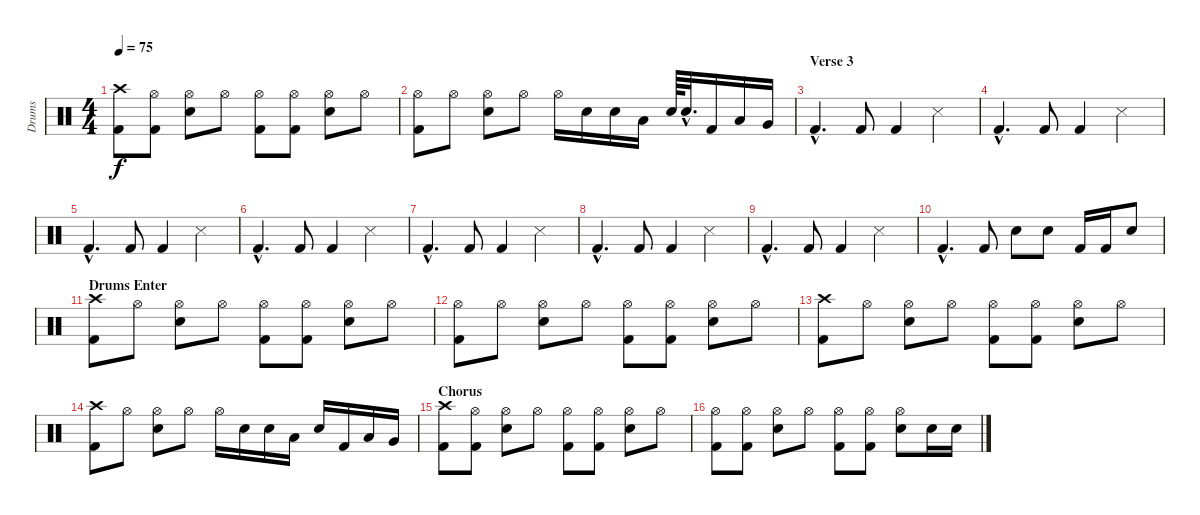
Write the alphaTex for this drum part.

\track ("Drums" "Drums") {instrument percussion}
\staff {score}
\articulation defaults
\ts (4 4)
\tempo 75
\clef neutral
\ks c
("Crash high (hit)" "Kick (hit) 2").8{dy f} ("Hi-Hat (open)" "Kick (hit) 2").8 ("Hi-Hat (open)" "Snare (hit) 2").8 "Hi-Hat (open)".8 ("Hi-Hat (open)" "Kick (hit) 2").8 ("Hi-Hat (open)" "Kick (hit) 2").8 ("Hi-Hat (open)" "Snare (hit) 2").8 "Hi-Hat (open)".8 |
("Hi-Hat (open)" "Kick (hit) 2").8 "Hi-Hat (open)".8 ("Hi-Hat (open)" "Snare (hit) 2").8 "Hi-Hat (open)".8 "Hi-Hat (open)".16 "Snare (hit) 2".16 "Snare (hit) 2".16 "Low Tom (hit)".16 "Snare (hit) 2".64 "Snare (hit) 2"{hac}.32{d} "Kick (hit) 2".16 "Low Tom (hit)".16 "Very Low Tom (hit)".16 |
\section ("" "Verse 3")
"Kick (hit) 2"{hac}.4{d} "Kick (hit) 2".8 "Kick (hit) 2".4 "Snare (side stick) 3".4 |
"Kick (hit) 2"{hac}.4{d} "Kick (hit) 2".8 "Kick (hit) 2".4 "Snare (side stick) 3".4 |
"Kick (hit) 2"{hac}.4{d} "Kick (hit) 2".8 "Kick (hit) 2".4 "Snare (side stick) 3".4 |
"Kick (hit) 2"{hac}.4{d} "Kick (hit) 2".8 "Kick (hit) 2".4 "Snare (side stick) 3".4 |
"Kick (hit) 2"{hac}.4{d} "Kick (hit) 2".8 "Kick (hit) 2".4 "Snare (side stick) 3".4 |
"Kick (hit) 2"{hac}.4{d} "Kick (hit) 2".8 "Kick (hit) 2".4 "Snare (side stick) 3".4 |
"Kick (hit) 2"{hac}.4{d} "Kick (hit) 2".8 "Kick (hit) 2".4 "Snare (side stick) 3".4 |
"Kick (hit) 2"{hac}.4{d} "Kick (hit) 2".8 "Snare (hit) 2".8 "Snare (hit) 2".8 "Kick (hit) 2".16 "Kick (hit) 2".16 "Snare (hit) 2".8 |
\section ("" "Drums Enter")
("Crash high (hit)" "Kick (hit) 2").8 "Hi-Hat (open)".8 ("Hi-Hat (open)" "Snare (hit) 2").8 "Hi-Hat (open)".8 ("Hi-Hat (open)" "Kick (hit) 2").8 ("Hi-Hat (open)" "Kick (hit) 2").8 ("Hi-Hat (open)" "Snare (hit) 2").8 "Hi-Hat (open)".8 |
("Hi-Hat (open)" "Kick (hit) 2").8 "Hi-Hat (open)".8 ("Hi-Hat (open)" "Snare (hit) 2").8 "Hi-Hat (open)".8 ("Hi-Hat (open)" "Kick (hit) 2").8 ("Hi-Hat (open)" "Kick (hit) 2").8 ("Hi-Hat (open)" "Snare (hit) 2").8 "Hi-Hat (open)".8 |
("Crash high (hit)" "Kick (hit) 2").8 "Hi-Hat (open)".8 ("Hi-Hat (open)" "Snare (hit) 2").8 "Hi-Hat (open)".8 ("Hi-Hat (open)" "Kick (hit) 2").8 ("Hi-Hat (open)" "Kick (hit) 2").8 ("Hi-Hat (open)" "Snare (hit) 2").8 "Hi-Hat (open)".8 |
("Crash high (hit)" "Kick (hit) 2").8 "Hi-Hat (open)".8 ("Hi-Hat (open)" "Snare (hit) 2").8 "Hi-Hat (open)".8 "Hi-Hat (open)".16 "Snare (hit) 2".16 "Snare (hit) 2".16 "Low Tom (hit)".16 "Snare (hit) 2".16 "Kick (hit) 2".16 "Low Tom (hit)".16 "Very Low Tom (hit)".16 |
\section ("" "Chorus")
("Crash high (hit)" "Kick (hit) 2").8 ("Hi-Hat (open)" "Kick (hit) 2").8 ("Hi-Hat (open)" "Snare (hit) 2").8 "Hi-Hat (open)".8 ("Hi-Hat (open)" "Kick (hit) 2").8 ("Hi-Hat (open)" "Kick (hit) 2").8 ("Hi-Hat (open)" "Snare (hit) 2").8 "Hi-Hat (open)".8 |
("Hi-Hat (open)" "Kick (hit) 2").8 ("Hi-Hat (open)" "Kick (hit) 2").8 ("Hi-Hat (open)" "Snare (hit) 2").8 "Hi-Hat (open)".8 ("Hi-Hat (open)" "Kick (hit) 2").8 ("Hi-Hat (open)" "Kick (hit) 2").8 ("Hi-Hat (open)" "Snare (hit) 2").8 "Snare (hit) 2".16 "Snare (hit) 2".16
